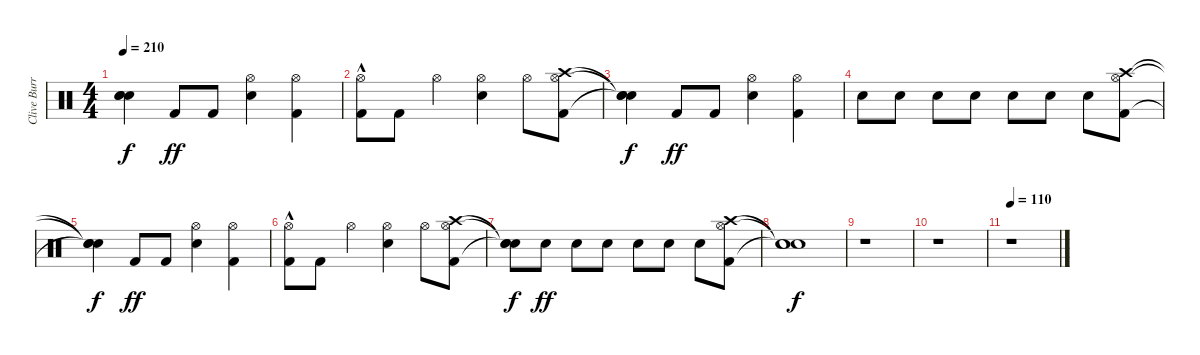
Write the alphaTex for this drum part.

\track ("Clive Burr" "Clive Burr") {instrument percussion}
\staff {score}
\articulation defaults
\ts (4 4)
\tempo 210
\clef neutral
\ks c
("Snare (hit)"{t} "Snare (hit)"{t} "Snare (hit)"{t}).4{dy f} "Kick (hit) 2".8{dy ff} "Kick (hit) 2".8 ("Snare (hit) 2" "Hi-Hat (open)").4 ("Kick (hit) 2" "Hi-Hat (open)").4 |
("Kick (hit) 2" "Hi-Hat (open)"{hac}).8 "Kick (hit) 2".8 "Hi-Hat (open)".4 ("Snare (hit) 2" "Hi-Hat (open)").4 "Hi-Hat (open)".8 ("Kick (hit) 2" "Hi-Hat (open)" "Crash high (hit)").8 |
("Snare (hit)"{t} "Snare (hit)"{t} "Snare (hit)"{t}).4{dy f} "Kick (hit) 2".8{dy ff} "Kick (hit) 2".8 ("Snare (hit) 2" "Hi-Hat (open)").4 ("Kick (hit) 2" "Hi-Hat (open)").4 |
"Snare (hit) 2".8 "Snare (hit) 2".8 "Snare (hit) 2".8 "Snare (hit) 2".8 "Snare (hit) 2".8 "Snare (hit) 2".8 "Snare (hit) 2".8 ("Kick (hit) 2" "Hi-Hat (open)" "Crash high (hit)").8 |
("Snare (hit)"{t} "Snare (hit)"{t} "Snare (hit)"{t}).4{dy f} "Kick (hit) 2".8{dy ff} "Kick (hit) 2".8 ("Snare (hit) 2" "Hi-Hat (open)").4 ("Kick (hit) 2" "Hi-Hat (open)").4 |
("Kick (hit) 2" "Hi-Hat (open)"{hac}).8 "Kick (hit) 2".8 "Hi-Hat (open)".4 ("Snare (hit) 2" "Hi-Hat (open)").4 "Hi-Hat (open)".8 ("Kick (hit) 2" "Hi-Hat (open)" "Crash high (hit)").8 |
("Snare (hit)"{t} "Snare (hit)"{t} "Snare (hit)"{t}).8{dy f} "Snare (hit) 2".8{dy ff} "Snare (hit) 2".8 "Snare (hit) 2".8 "Snare (hit) 2".8 "Snare (hit) 2".8 "Snare (hit) 2".8 ("Kick (hit) 2" "Hi-Hat (open)" "Crash high (hit)").8 |
("Snare (hit)"{t} "Snare (hit)"{t} "Snare (hit)"{t}).1{dy f} |
r.1 |
r.1 |
\tempo 110
r.1
